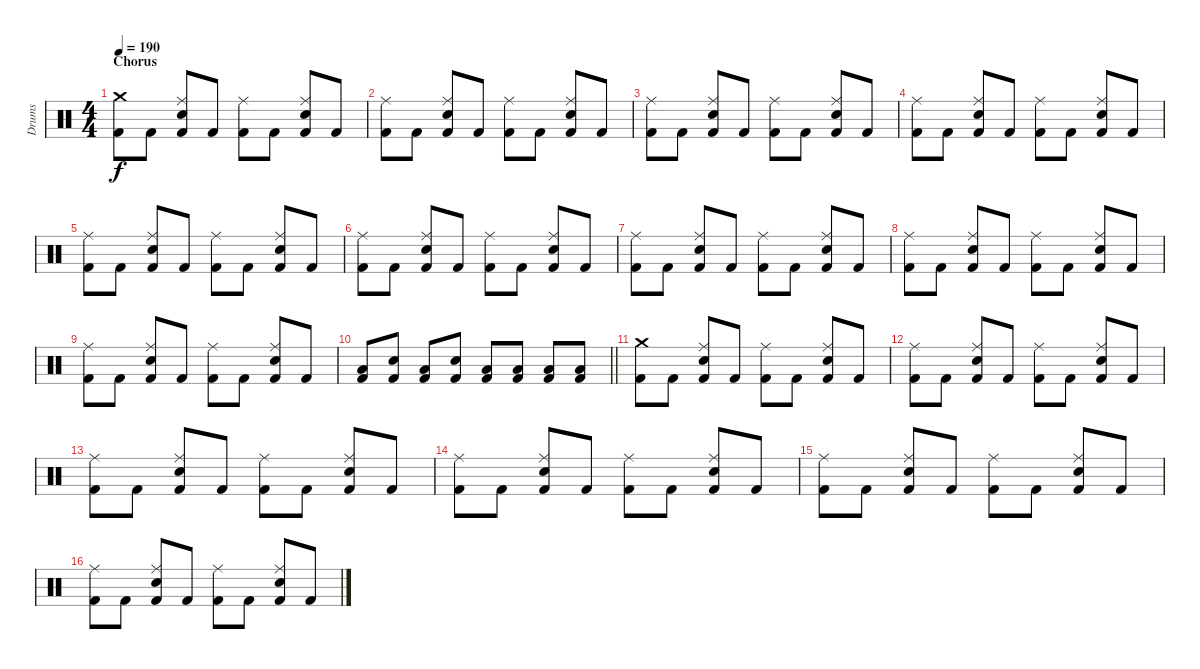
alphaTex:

\track ("Drums" "Drums") {instrument percussion}
\staff {score}
\articulation defaults
\ts (4 4)
\section ("" "Chorus")
\tempo 190
\clef neutral
\ks c
("Crash medium (hit)" "Kick (hit) 2").8{dy f} "Kick (hit) 2".8 ("Ride (middle)" "Snare (hit) 2" "Kick (hit) 2").8 "Kick (hit) 2".8 ("Ride (middle)" "Kick (hit) 2").8 "Kick (hit) 2".8 ("Ride (middle)" "Snare (hit) 2" "Kick (hit) 2").8 "Kick (hit) 2".8 |
("Ride (middle)" "Kick (hit) 2").8 "Kick (hit) 2".8 ("Ride (middle)" "Snare (hit) 2" "Kick (hit) 2").8 "Kick (hit) 2".8 ("Ride (middle)" "Kick (hit) 2").8 "Kick (hit) 2".8 ("Ride (middle)" "Snare (hit) 2" "Kick (hit) 2").8 "Kick (hit) 2".8 |
("Ride (middle)" "Kick (hit) 2").8 "Kick (hit) 2".8 ("Ride (middle)" "Snare (hit) 2" "Kick (hit) 2").8 "Kick (hit) 2".8 ("Ride (middle)" "Kick (hit) 2").8 "Kick (hit) 2".8 ("Ride (middle)" "Snare (hit) 2" "Kick (hit) 2").8 "Kick (hit) 2".8 |
("Ride (middle)" "Kick (hit) 2").8 "Kick (hit) 2".8 ("Ride (middle)" "Snare (hit) 2" "Kick (hit) 2").8 "Kick (hit) 2".8 ("Ride (middle)" "Kick (hit) 2").8 "Kick (hit) 2".8 ("Ride (middle)" "Snare (hit) 2" "Kick (hit) 2").8 "Kick (hit) 2".8 |
("Ride (middle)" "Kick (hit) 2").8 "Kick (hit) 2".8 ("Ride (middle)" "Snare (hit) 2" "Kick (hit) 2").8 "Kick (hit) 2".8 ("Ride (middle)" "Kick (hit) 2").8 "Kick (hit) 2".8 ("Ride (middle)" "Snare (hit) 2" "Kick (hit) 2").8 "Kick (hit) 2".8 |
("Ride (middle)" "Kick (hit) 2").8 "Kick (hit) 2".8 ("Ride (middle)" "Snare (hit) 2" "Kick (hit) 2").8 "Kick (hit) 2".8 ("Ride (middle)" "Kick (hit) 2").8 "Kick (hit) 2".8 ("Ride (middle)" "Snare (hit) 2" "Kick (hit) 2").8 "Kick (hit) 2".8 |
("Ride (middle)" "Kick (hit) 2").8 "Kick (hit) 2".8 ("Ride (middle)" "Snare (hit) 2" "Kick (hit) 2").8 "Kick (hit) 2".8 ("Ride (middle)" "Kick (hit) 2").8 "Kick (hit) 2".8 ("Ride (middle)" "Snare (hit) 2" "Kick (hit) 2").8 "Kick (hit) 2".8 |
("Ride (middle)" "Kick (hit) 2").8 "Kick (hit) 2".8 ("Ride (middle)" "Snare (hit) 2" "Kick (hit) 2").8 "Kick (hit) 2".8 ("Ride (middle)" "Kick (hit) 2").8 "Kick (hit) 2".8 ("Ride (middle)" "Snare (hit) 2" "Kick (hit) 2").8 "Kick (hit) 2".8 |
("Ride (middle)" "Kick (hit) 2").8 "Kick (hit) 2".8 ("Ride (middle)" "Snare (hit) 2" "Kick (hit) 2").8 "Kick (hit) 2".8 ("Ride (middle)" "Kick (hit) 2").8 "Kick (hit) 2".8 ("Ride (middle)" "Snare (hit) 2" "Kick (hit) 2").8 "Kick (hit) 2".8 |
\barLineRight lightlight
("Low Tom (hit)" "Kick (hit) 2").8 ("Snare (hit) 2" "Kick (hit) 2").8 ("Low Tom (hit)" "Kick (hit) 2").8 ("Snare (hit) 2" "Kick (hit) 2").8 ("Low Tom (hit)" "Kick (hit) 2").8 ("Low Tom (hit)" "Kick (hit) 2").8 ("Low Tom (hit)" "Kick (hit) 2").8 ("Low Tom (hit)" "Kick (hit) 2").8 |
("Crash medium (hit)" "Kick (hit) 2").8 "Kick (hit) 2".8 ("Ride (middle)" "Snare (hit) 2" "Kick (hit) 2").8 "Kick (hit) 2".8 ("Ride (middle)" "Kick (hit) 2").8 "Kick (hit) 2".8 ("Ride (middle)" "Snare (hit) 2" "Kick (hit) 2").8 "Kick (hit) 2".8 |
("Ride (middle)" "Kick (hit) 2").8 "Kick (hit) 2".8 ("Ride (middle)" "Snare (hit) 2" "Kick (hit) 2").8 "Kick (hit) 2".8 ("Ride (middle)" "Kick (hit) 2").8 "Kick (hit) 2".8 ("Ride (middle)" "Snare (hit) 2" "Kick (hit) 2").8 "Kick (hit) 2".8 |
("Ride (middle)" "Kick (hit) 2").8 "Kick (hit) 2".8 ("Ride (middle)" "Snare (hit) 2" "Kick (hit) 2").8 "Kick (hit) 2".8 ("Ride (middle)" "Kick (hit) 2").8 "Kick (hit) 2".8 ("Ride (middle)" "Snare (hit) 2" "Kick (hit) 2").8 "Kick (hit) 2".8 |
("Ride (middle)" "Kick (hit) 2").8 "Kick (hit) 2".8 ("Ride (middle)" "Snare (hit) 2" "Kick (hit) 2").8 "Kick (hit) 2".8 ("Ride (middle)" "Kick (hit) 2").8 "Kick (hit) 2".8 ("Ride (middle)" "Snare (hit) 2" "Kick (hit) 2").8 "Kick (hit) 2".8 |
("Ride (middle)" "Kick (hit) 2").8 "Kick (hit) 2".8 ("Ride (middle)" "Snare (hit) 2" "Kick (hit) 2").8 "Kick (hit) 2".8 ("Ride (middle)" "Kick (hit) 2").8 "Kick (hit) 2".8 ("Ride (middle)" "Snare (hit) 2" "Kick (hit) 2").8 "Kick (hit) 2".8 |
("Ride (middle)" "Kick (hit) 2").8 "Kick (hit) 2".8 ("Ride (middle)" "Snare (hit) 2" "Kick (hit) 2").8 "Kick (hit) 2".8 ("Ride (middle)" "Kick (hit) 2").8 "Kick (hit) 2".8 ("Ride (middle)" "Snare (hit) 2" "Kick (hit) 2").8 "Kick (hit) 2".8
